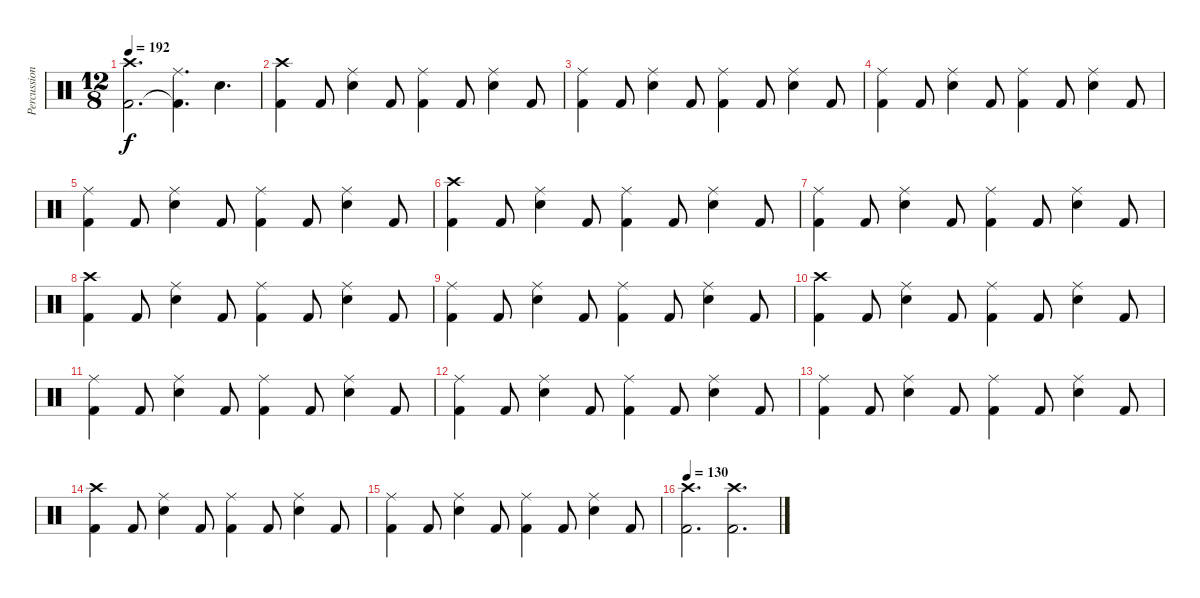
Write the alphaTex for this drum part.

\track ("Percussion" "Percussion") {instrument percussion}
\staff {score}
\articulation defaults
\ts (12 8)
\tempo 192
\clef neutral
\ks c
("Kick (hit) 2" "Crash high (hit)").2{d dy f} ("Kick (hit) 2"{t} "Ride (middle)").4{d} "Snare (hit) 2".4{d} |
("Kick (hit) 2" "Crash high (hit)").4 "Kick (hit) 2".8 ("Snare (hit) 2" "Ride (middle)").4 "Kick (hit) 2".8 ("Kick (hit) 2" "Ride (middle)").4 "Kick (hit) 2".8 ("Snare (hit) 2" "Ride (middle)").4 "Kick (hit) 2".8 |
("Kick (hit) 2" "Ride (middle)").4 "Kick (hit) 2".8 ("Snare (hit) 2" "Ride (middle)").4 "Kick (hit) 2".8 ("Kick (hit) 2" "Ride (middle)").4 "Kick (hit) 2".8 ("Snare (hit) 2" "Ride (middle)").4 "Kick (hit) 2".8 |
("Kick (hit) 2" "Ride (middle)").4 "Kick (hit) 2".8 ("Snare (hit) 2" "Ride (middle)").4 "Kick (hit) 2".8 ("Kick (hit) 2" "Ride (middle)").4 "Kick (hit) 2".8 ("Snare (hit) 2" "Ride (middle)").4 "Kick (hit) 2".8 |
("Kick (hit) 2" "Ride (middle)").4 "Kick (hit) 2".8 ("Snare (hit) 2" "Ride (middle)").4 "Kick (hit) 2".8 ("Kick (hit) 2" "Ride (middle)").4 "Kick (hit) 2".8 ("Snare (hit) 2" "Ride (middle)").4 "Kick (hit) 2".8 |
("Kick (hit) 2" "Crash high (hit)").4 "Kick (hit) 2".8 ("Snare (hit) 2" "Ride (middle)").4 "Kick (hit) 2".8 ("Kick (hit) 2" "Ride (middle)").4 "Kick (hit) 2".8 ("Snare (hit) 2" "Ride (middle)").4 "Kick (hit) 2".8 |
("Kick (hit) 2" "Ride (middle)").4 "Kick (hit) 2".8 ("Snare (hit) 2" "Ride (middle)").4 "Kick (hit) 2".8 ("Kick (hit) 2" "Ride (middle)").4 "Kick (hit) 2".8 ("Snare (hit) 2" "Ride (middle)").4 "Kick (hit) 2".8 |
("Kick (hit) 2" "Crash high (hit)").4 "Kick (hit) 2".8 ("Snare (hit) 2" "Ride (middle)").4 "Kick (hit) 2".8 ("Kick (hit) 2" "Ride (middle)").4 "Kick (hit) 2".8 ("Snare (hit) 2" "Ride (middle)").4 "Kick (hit) 2".8 |
("Kick (hit) 2" "Ride (middle)").4 "Kick (hit) 2".8 ("Snare (hit) 2" "Ride (middle)").4 "Kick (hit) 2".8 ("Kick (hit) 2" "Ride (middle)").4 "Kick (hit) 2".8 ("Snare (hit) 2" "Ride (middle)").4 "Kick (hit) 2".8 |
("Kick (hit) 2" "Crash high (hit)").4 "Kick (hit) 2".8 ("Snare (hit) 2" "Ride (middle)").4 "Kick (hit) 2".8 ("Kick (hit) 2" "Ride (middle)").4 "Kick (hit) 2".8 ("Snare (hit) 2" "Ride (middle)").4 "Kick (hit) 2".8 |
("Kick (hit) 2" "Ride (middle)").4 "Kick (hit) 2".8 ("Snare (hit) 2" "Ride (middle)").4 "Kick (hit) 2".8 ("Kick (hit) 2" "Ride (middle)").4 "Kick (hit) 2".8 ("Snare (hit) 2" "Ride (middle)").4 "Kick (hit) 2".8 |
("Kick (hit) 2" "Ride (middle)").4 "Kick (hit) 2".8 ("Snare (hit) 2" "Ride (middle)").4 "Kick (hit) 2".8 ("Kick (hit) 2" "Ride (middle)").4 "Kick (hit) 2".8 ("Snare (hit) 2" "Ride (middle)").4 "Kick (hit) 2".8 |
("Kick (hit) 2" "Ride (middle)").4 "Kick (hit) 2".8 ("Snare (hit) 2" "Ride (middle)").4 "Kick (hit) 2".8 ("Kick (hit) 2" "Ride (middle)").4 "Kick (hit) 2".8 ("Snare (hit) 2" "Ride (middle)").4 "Kick (hit) 2".8 |
("Kick (hit) 2" "Crash high (hit)").4 "Kick (hit) 2".8 ("Snare (hit) 2" "Ride (middle)").4 "Kick (hit) 2".8 ("Kick (hit) 2" "Ride (middle)").4 "Kick (hit) 2".8 ("Snare (hit) 2" "Ride (middle)").4 "Kick (hit) 2".8 |
("Kick (hit) 2" "Ride (middle)").4 "Kick (hit) 2".8 ("Snare (hit) 2" "Ride (middle)").4 "Kick (hit) 2".8 ("Kick (hit) 2" "Ride (middle)").4 "Kick (hit) 2".8 ("Snare (hit) 2" "Ride (middle)").4 "Kick (hit) 2".8 |
\tempo 130
("Kick (hit) 2" "Crash high (hit)").2{d} ("Kick (hit) 2" "Crash high (hit)").2{d}
